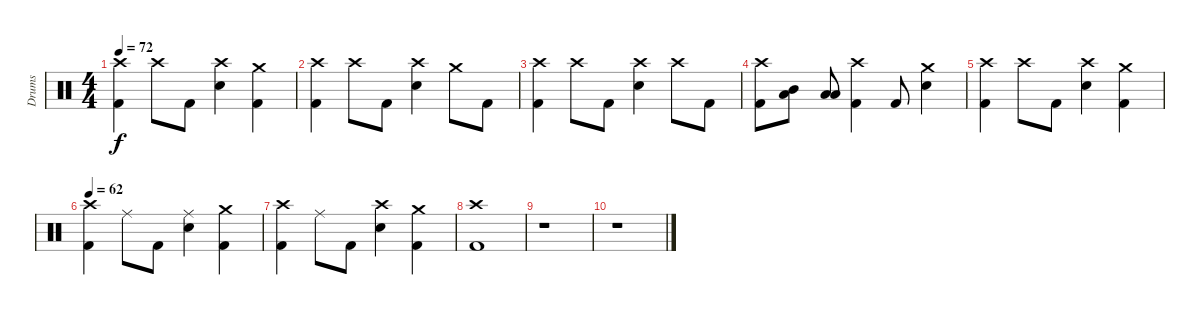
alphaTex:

\track ("Drums" "Drums") {instrument percussion}
\staff {score}
\articulation defaults
\ts (4 4)
\tempo 72
\clef neutral
\ks c
("Crash high (hit)" "Kick (hit) 2").4{dy f} "Crash high (hit)".8 "Kick (hit) 2".8 ("Crash high (hit)" "Electric Snare (hit)").4 ("Crash medium (hit)" "Kick (hit) 2").4 |
("Crash high (hit)" "Kick (hit) 2").4 "Crash high (hit)".8 "Kick (hit) 2".8 ("Crash high (hit)" "Electric Snare (hit)").4 "Crash medium (hit)".8 "Kick (hit) 2".8 |
("Crash high (hit)" "Kick (hit) 2").4 "Crash high (hit)".8 "Kick (hit) 2".8 ("Crash high (hit)" "Electric Snare (hit)").4 "Crash high (hit)".8 "Kick (hit) 2".8 |
("Crash high (hit)" "Kick (hit) 2").8 ("Mid Tom (hit)" "Low Floor Tom (hit)").8 ("Low Tom (hit)" "Low Floor Tom (hit)").8 ("Crash high (hit)" "Kick (hit) 2").4 "Kick (hit) 2".8 ("Crash medium (hit)" "Electric Snare (hit)").4 |
("Crash high (hit)" "Kick (hit) 2").4 "Crash high (hit)".8 "Kick (hit) 2".8 ("Crash high (hit)" "Electric Snare (hit)").4 ("Crash medium (hit)" "Kick (hit) 2").4 |
\tempo 62
("Crash high (hit)" "Kick (hit) 2").4 "Ride (middle)".8 "Kick (hit) 2".8 ("Ride (middle)" "Electric Snare (hit)").4 ("Crash medium (hit)" "Kick (hit) 2").4 |
("Crash high (hit)" "Kick (hit) 2").4 "Ride (middle)".8 "Kick (hit) 2".8 ("Crash high (hit)" "Electric Snare (hit)").4 ("Crash medium (hit)" "Kick (hit) 2").4 |
("Crash high (hit)" "Kick (hit) 2").1 |
r.1 |
r.1
